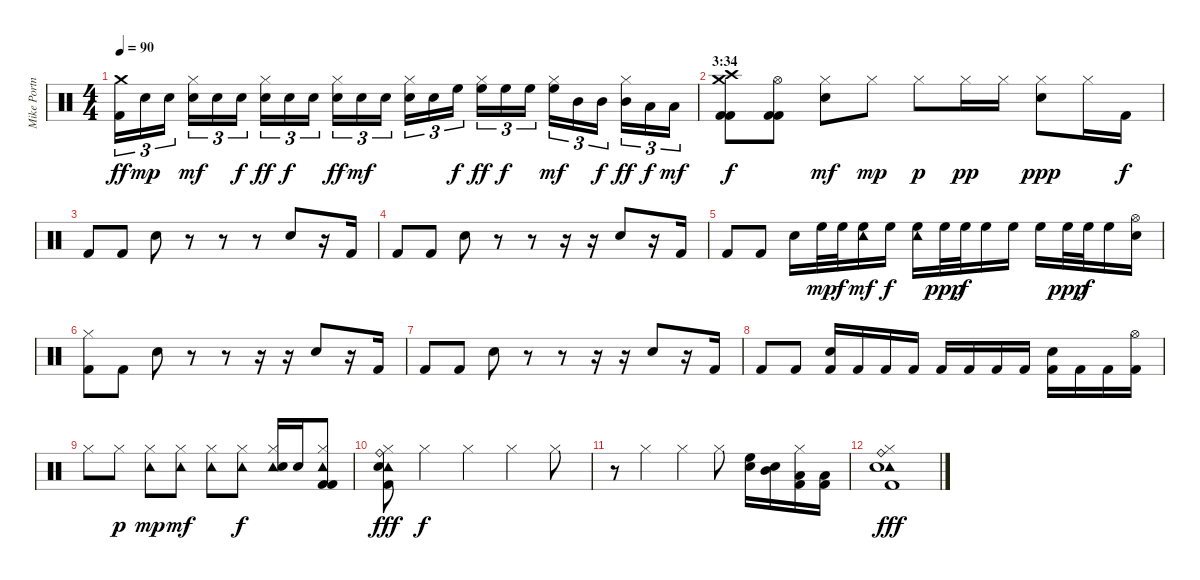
\track ("Mike Portnoy (Drums)" "Mike Portn") {instrument percussion}
\staff {score}
\articulation defaults
\ts (4 4)
\tempo 90
\clef neutral
\ks c
("Crash medium (hit)" "Kick (hit) 2").16{tu (3 2) dy ff} "Electric Snare (hit)".16{tu (3 2) dy mp} "Electric Snare (hit)".16{tu (3 2) beam splitsecondary} ("Hi-Hat (closed)" "Electric Snare (hit)").16{tu (3 2) dy mf} "Electric Snare (hit)".16{tu (3 2)} "Electric Snare (hit)".16{tu (3 2) dy f} ("Hi-Hat (closed)" "Electric Snare (hit)").16{tu (3 2) dy ff} "Electric Snare (hit)".16{tu (3 2) dy f} "Electric Snare (hit)".16{tu (3 2) beam splitsecondary} ("Hi-Hat (closed)" "Electric Snare (hit)").16{tu (3 2) dy ff} "Electric Snare (hit)".16{tu (3 2) dy mf} "Electric Snare (hit)".16{tu (3 2)} ("Hi-Hat (closed)" "Electric Snare (hit)").16{tu (3 2)} "Electric Snare (hit)".16{tu (3 2)} "High Floor Tom (hit)".16{tu (3 2) dy f beam splitsecondary} ("Hi-Hat (closed)" "High Floor Tom (hit)").16{tu (3 2) dy ff} "High Floor Tom (hit)".16{tu (3 2) dy f} "High Floor Tom (hit)".16{tu (3 2)} ("Hi-Hat (closed)" "High Floor Tom (hit)").16{tu (3 2) dy mf} "Mid Tom (hit)".16{tu (3 2)} "Mid Tom (hit)".16{tu (3 2) dy f beam splitsecondary} ("Hi-Hat (closed)" "Mid Tom (hit)").16{tu (3 2) dy ff} "Low Tom (hit)".16{tu (3 2) dy f} "Low Tom (hit)".16{tu (3 2) dy mf} |
\section ("" "3:34")
("Crash medium (hit)" "Crash high (hit)" "Kick (hit) 2" "Kick (hit) 2").8{dy f} ("Hi-Hat (open)" "Kick (hit) 2" "Kick (hit) 2").8 ("Hi-Hat (closed)" "Electric Snare (hit)").8{dy mf} "Hi-Hat (closed)".8{dy mp} "Hi-Hat (closed)".8{dy p} "Hi-Hat (closed)".16{dy pp} "Hi-Hat (closed)".16 ("Hi-Hat (closed)" "Electric Snare (hit)").8{dy ppp} "Hi-Hat (closed)".16 "Kick (hit) 2".16{dy f} |
"Kick (hit) 2".8 "Kick (hit) 2".8 "Electric Snare (hit)".8 r.8 r.8 r.8 "Electric Snare (hit)".8 r.16 "Kick (hit) 2".16 |
"Kick (hit) 2".8 "Kick (hit) 2".8 "Electric Snare (hit)".8 r.8 r.8 r.16 r.16 "Electric Snare (hit)".8 r.16 "Kick (hit) 2".16 |
"Kick (hit) 2".8 "Kick (hit) 2".8 "Electric Snare (hit)".16 "High Floor Tom (hit)".32{dy mp} "High Floor Tom (hit)".32{dy f} ("Tambourine (hit)" "High Floor Tom (hit)").16{dy mf} "High Floor Tom (hit)".16{dy f} ("Tambourine (hit)" "High Floor Tom (hit)").16 "High Floor Tom (hit)".32{dy ppp} "High Floor Tom (hit)".32{dy f} "High Floor Tom (hit)".16 "High Floor Tom (hit)".16 "High Floor Tom (hit)".16 "High Floor Tom (hit)".32{dy ppp} "High Floor Tom (hit)".32{dy f} "High Floor Tom (hit)".16 ("Hi-Hat (open)" "Electric Snare (hit)").16 |
("Hi-Hat (closed)" "Kick (hit) 2").8 "Kick (hit) 2".8 "Electric Snare (hit)".8 r.8 r.8 r.16 r.16 "Electric Snare (hit)".8 r.16 "Kick (hit) 2".16 |
"Kick (hit) 2".8 "Kick (hit) 2".8 "Electric Snare (hit)".8 r.8 r.8 r.16 r.16 "Electric Snare (hit)".8 r.16 "Kick (hit) 2".16 |
"Kick (hit) 2".8 "Kick (hit) 2".8 ("Electric Snare (hit)" "Kick (hit) 2").16 "Kick (hit) 2".16 "Kick (hit) 2".16 "Kick (hit) 2".16 "Kick (hit) 2".16 "Kick (hit) 2".16 "Kick (hit) 2".16 "Kick (hit) 2".16 ("Electric Snare (hit)" "Kick (hit) 2").16 "Kick (hit) 2".16 "Kick (hit) 2".16 ("Hi-Hat (open)" "Kick (hit) 2").16 |
"Hi-Hat (closed)".8 "Hi-Hat (closed)".8{dy p} ("Hi-Hat (closed)" "Tambourine (hit)").8{dy mp} ("Hi-Hat (closed)" "Tambourine (hit)").8{dy mf} ("Hi-Hat (closed)" "Tambourine (hit)").8 ("Hi-Hat (closed)" "Tambourine (hit)").8{dy f} ("Hi-Hat (closed)" "Tambourine (hit)" "Electric Snare (hit)").16 "Electric Snare (hit)".16 ("Hi-Hat (closed)" "Tambourine (hit)" "Kick (hit) 2" "Kick (hit) 2").8 |
("Hi-Hat (closed)" "Ride (bell)" "Tambourine (hit)" "Electric Snare (hit)" "Kick (hit) 2").8{dy fff} "Hi-Hat (closed)".4{dy f} "Hi-Hat (closed)".4 "Hi-Hat (closed)".4 "Hi-Hat (closed)".8 |
r.8 "Hi-Hat (closed)".4 "Hi-Hat (closed)".4 "Hi-Hat (closed)".8 ("High Floor Tom (hit)" "Electric Snare (hit)").16 ("Mid Tom (hit)" "Electric Snare (hit)").16 ("Low Tom (hit)" "Kick (hit) 2" "Hi-Hat (closed)").16 ("Low Floor Tom (hit)" "Kick (hit) 2").16 |
("Hi-Hat (closed)" "Ride (bell)" "Tambourine (hit)" "Electric Snare (hit)" "Kick (hit) 2").1{dy fff}
